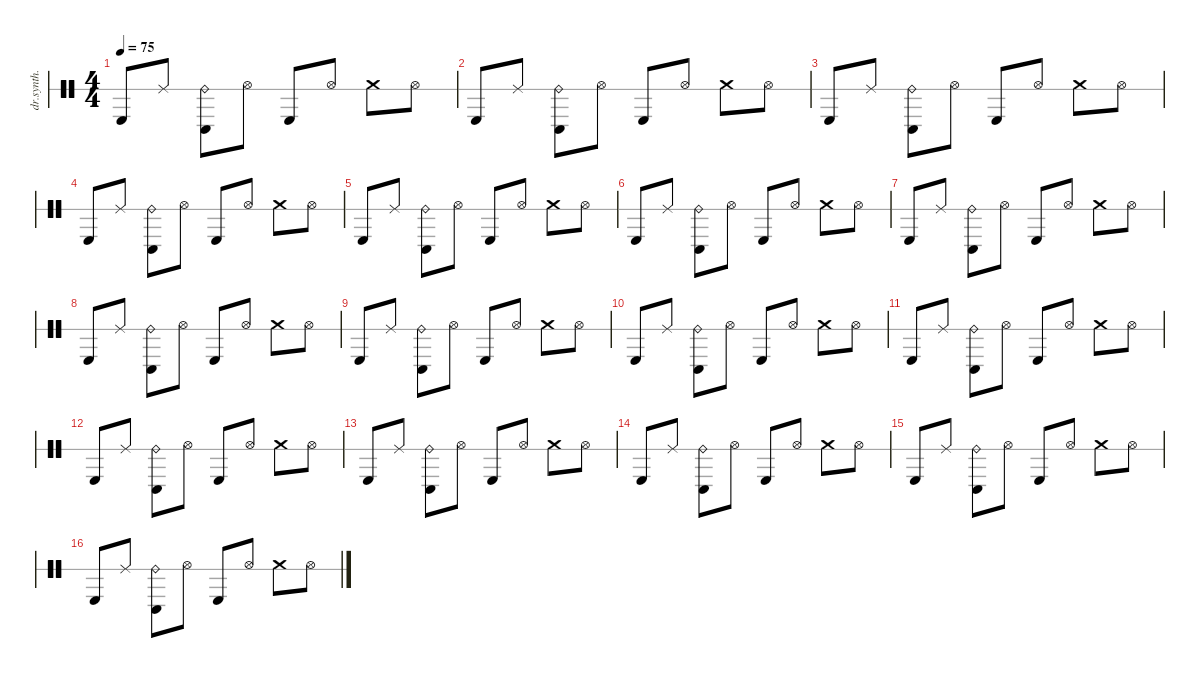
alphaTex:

\defaultSystemsLayout 4
\hideDynamics
\bracketExtendMode nobrackets
\otherSystemsTrackNameOrientation horizontal
\track ("Synth Drum" "dr.synth.") {instrument percussion}
\staff {score 1}
\articulation defaults
\ts (4 4)
\tempo 75
\clef neutral
\ks c "Kick (hit) 2".8{dy mf beam Up} "Ride (middle)".8{dy f beam Up}
("Ride (bell)" "Timbale high (hit)").8{dy mp beam Down} "Hi-Hat (open)".8{dy mf beam Down} "Kick (hit) 2".8{beam Up} "Hi-Hat (open)".8{beam Up} "Crash medium (hit)".8{beam Down} "Hi-Hat (open)".8{beam Down} |
"Kick (hit) 2".8{beam Up} "Ride (middle)".8{dy f beam Up} ("Ride (bell)" "Timbale high (hit)").8{dy mp beam Down} "Hi-Hat (open)".8{dy mf beam Down} "Kick (hit) 2".8{beam Up} "Hi-Hat (open)".8{beam Up} "Crash medium (hit)".8{beam Down} "Hi-Hat (open)".8{beam Down} |
"Kick (hit) 2".8{beam Up} "Ride (middle)".8{dy f beam Up} ("Ride (bell)" "Timbale high (hit)").8{dy mp beam Down} "Hi-Hat (open)".8{dy mf beam Down} "Kick (hit) 2".8{beam Up} "Hi-Hat (open)".8{beam Up} "Crash medium (hit)".8{beam Down} "Hi-Hat (open)".8{beam Down} |
"Kick (hit) 2".8{beam Up} "Ride (middle)".8{dy f beam Up} ("Ride (bell)" "Timbale high (hit)").8{dy mp beam Down} "Hi-Hat (open)".8{dy mf beam Down} "Kick (hit) 2".8{beam Up} "Hi-Hat (open)".8{beam Up} "Crash medium (hit)".8{beam Down} "Hi-Hat (open)".8{beam Down} |
"Kick (hit) 2".8{beam Up} "Ride (middle)".8{dy f beam Up} ("Ride (bell)" "Timbale high (hit)").8{dy mp beam Down} "Hi-Hat (open)".8{dy mf beam Down} "Kick (hit) 2".8{beam Up} "Hi-Hat (open)".8{beam Up} "Crash medium (hit)".8{beam Down} "Hi-Hat (open)".8{beam Down} |
"Kick (hit) 2".8{beam Up} "Ride (middle)".8{dy f beam Up} ("Ride (bell)" "Timbale high (hit)").8{dy mp beam Down} "Hi-Hat (open)".8{dy mf beam Down} "Kick (hit) 2".8{beam Up} "Hi-Hat (open)".8{beam Up} "Crash medium (hit)".8{beam Down} "Hi-Hat (open)".8{beam Down} |
"Kick (hit) 2".8{beam Up} "Ride (middle)".8{dy f beam Up} ("Ride (bell)" "Timbale high (hit)").8{dy mp beam Down} "Hi-Hat (open)".8{dy mf beam Down} "Kick (hit) 2".8{beam Up} "Hi-Hat (open)".8{beam Up} "Crash medium (hit)".8{beam Down} "Hi-Hat (open)".8{beam Down} |
"Kick (hit) 2".8{beam Up} "Ride (middle)".8{dy f beam Up} ("Ride (bell)" "Timbale high (hit)").8{dy mp beam Down} "Hi-Hat (open)".8{dy mf beam Down} "Kick (hit) 2".8{beam Up} "Hi-Hat (open)".8{beam Up} "Crash medium (hit)".8{beam Down} "Hi-Hat (open)".8{beam Down} |
"Kick (hit) 2".8{beam Up} "Ride (middle)".8{dy f beam Up} ("Ride (bell)" "Timbale high (hit)").8{dy mp beam Down} "Hi-Hat (open)".8{dy mf beam Down} "Kick (hit) 2".8{beam Up} "Hi-Hat (open)".8{beam Up} "Crash medium (hit)".8{beam Down} "Hi-Hat (open)".8{beam Down} |
"Kick (hit) 2".8{beam Up} "Ride (middle)".8{dy f beam Up} ("Ride (bell)" "Timbale high (hit)").8{dy mp beam Down} "Hi-Hat (open)".8{dy mf beam Down} "Kick (hit) 2".8{beam Up} "Hi-Hat (open)".8{beam Up} "Crash medium (hit)".8{beam Down} "Hi-Hat (open)".8{beam Down} |
"Kick (hit) 2".8{beam Up} "Ride (middle)".8{dy f beam Up} ("Ride (bell)" "Timbale high (hit)").8{dy mp beam Down} "Hi-Hat (open)".8{dy mf beam Down} "Kick (hit) 2".8{beam Up} "Hi-Hat (open)".8{beam Up} "Crash medium (hit)".8{beam Down} "Hi-Hat (open)".8{beam Down} |
"Kick (hit) 2".8{beam Up} "Ride (middle)".8{dy f beam Up} ("Ride (bell)" "Timbale high (hit)").8{dy mp beam Down} "Hi-Hat (open)".8{dy mf beam Down} "Kick (hit) 2".8{beam Up} "Hi-Hat (open)".8{beam Up} "Crash medium (hit)".8{beam Down} "Hi-Hat (open)".8{beam Down} |
"Kick (hit) 2".8{beam Up} "Ride (middle)".8{dy f beam Up} ("Ride (bell)" "Timbale high (hit)").8{dy mp beam Down} "Hi-Hat (open)".8{dy mf beam Down} "Kick (hit) 2".8{beam Up} "Hi-Hat (open)".8{beam Up} "Crash medium (hit)".8{beam Down} "Hi-Hat (open)".8{beam Down} |
"Kick (hit) 2".8{beam Up} "Ride (middle)".8{dy f beam Up} ("Ride (bell)" "Timbale high (hit)").8{dy mp beam Down} "Hi-Hat (open)".8{dy mf beam Down} "Kick (hit) 2".8{beam Up} "Hi-Hat (open)".8{beam Up} "Crash medium (hit)".8{beam Down} "Hi-Hat (open)".8{beam Down} |
"Kick (hit) 2".8{beam Up} "Ride (middle)".8{dy f beam Up} ("Ride (bell)" "Timbale high (hit)").8{dy mp beam Down} "Hi-Hat (open)".8{dy mf beam Down} "Kick (hit) 2".8{beam Up} "Hi-Hat (open)".8{beam Up} "Crash medium (hit)".8{beam Down} "Hi-Hat (open)".8{beam Down} |
"Kick (hit) 2".8{beam Up} "Ride (middle)".8{dy f beam Up} ("Ride (bell)" "Timbale high (hit)").8{dy mp beam Down} "Hi-Hat (open)".8{dy mf beam Down} "Kick (hit) 2".8{beam Up} "Hi-Hat (open)".8{beam Up} "Crash medium (hit)".8{beam Down} "Hi-Hat (open)".8{beam Down}
